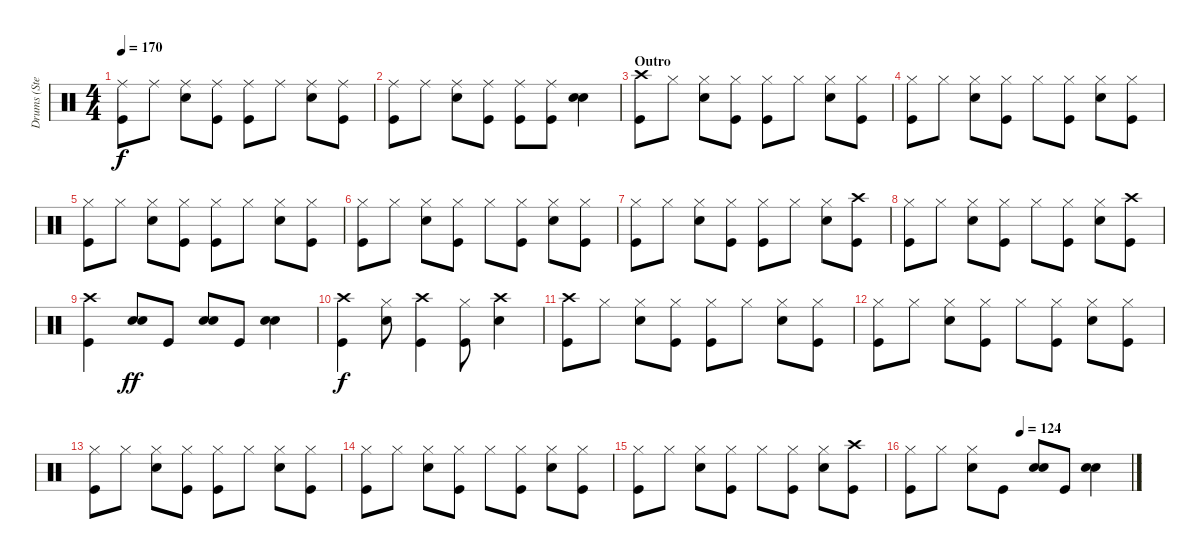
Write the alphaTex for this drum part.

\track ("Drums (Steven)" "Drums (Ste") {instrument percussion}
\staff {score}
\articulation defaults
\ts (4 4)
\tempo 170
\clef neutral
\ks c
("Ride (middle)" "Kick (hit)").8{dy f} "Ride (middle)".8 ("Ride (middle)" "Snare (hit) 2").8 ("Ride (middle)" "Kick (hit)").8 ("Ride (middle)" "Kick (hit)").8 "Ride (middle)".8 ("Ride (middle)" "Snare (hit) 2").8 ("Ride (middle)" "Kick (hit)").8 |
("Ride (middle)" "Kick (hit)").8 "Ride (middle)".8 ("Ride (middle)" "Snare (hit) 2").8 ("Ride (middle)" "Kick (hit)").8 ("Ride (middle)" "Kick (hit)").8 ("Ride (middle)" "Kick (hit)").8 ("Snare (hit) 2" "Snare (hit) 2").4 |
\section ("" "Outro")
("Crash high (hit)" "Kick (hit)").8 "Hi-Hat (closed)".8 ("Hi-Hat (closed)" "Snare (hit) 2").8 ("Hi-Hat (closed)" "Kick (hit)").8 ("Hi-Hat (closed)" "Kick (hit)").8 "Hi-Hat (closed)".8 ("Hi-Hat (closed)" "Snare (hit) 2").8 ("Hi-Hat (closed)" "Kick (hit)").8 |
("Hi-Hat (closed)" "Kick (hit)").8 "Hi-Hat (closed)".8 ("Hi-Hat (closed)" "Snare (hit) 2").8 ("Hi-Hat (closed)" "Kick (hit)").8 "Hi-Hat (closed)".8 ("Hi-Hat (closed)" "Kick (hit)").8 ("Hi-Hat (closed)" "Snare (hit) 2").8 ("Hi-Hat (closed)" "Kick (hit)").8 |
("Hi-Hat (closed)" "Kick (hit)").8 "Hi-Hat (closed)".8 ("Hi-Hat (closed)" "Snare (hit) 2").8 ("Hi-Hat (closed)" "Kick (hit)").8 ("Hi-Hat (closed)" "Kick (hit)").8 "Hi-Hat (closed)".8 ("Hi-Hat (closed)" "Snare (hit) 2").8 ("Hi-Hat (closed)" "Kick (hit)").8 |
("Hi-Hat (closed)" "Kick (hit)").8 "Hi-Hat (closed)".8 ("Hi-Hat (closed)" "Snare (hit) 2").8 ("Hi-Hat (closed)" "Kick (hit)").8 "Hi-Hat (closed)".8 ("Hi-Hat (closed)" "Kick (hit)").8 ("Hi-Hat (closed)" "Snare (hit) 2").8 ("Hi-Hat (closed)" "Kick (hit)").8 |
("Hi-Hat (closed)" "Kick (hit)").8 "Hi-Hat (closed)".8 ("Hi-Hat (closed)" "Snare (hit) 2").8 ("Hi-Hat (closed)" "Kick (hit)").8 ("Hi-Hat (closed)" "Kick (hit)").8 "Hi-Hat (closed)".8 ("Hi-Hat (closed)" "Snare (hit) 2").8 ("Crash high (hit)" "Kick (hit)").8 |
("Hi-Hat (closed)" "Kick (hit)").8 "Hi-Hat (closed)".8 ("Hi-Hat (closed)" "Snare (hit) 2").8 ("Hi-Hat (closed)" "Kick (hit)").8 "Hi-Hat (closed)".8 ("Hi-Hat (closed)" "Kick (hit)").8 ("Hi-Hat (closed)" "Snare (hit) 2").8 ("Crash high (hit)" "Kick (hit)").8 |
("Crash high (hit)" "Kick (hit)").4 ("Snare (hit) 2" "Snare (hit) 2").8{dy ff} "Kick (hit)".8 ("Snare (hit) 2" "Snare (hit) 2").8 "Kick (hit)".8 ("Snare (hit) 2" "Snare (hit) 2").4 |
("Crash high (hit)" "Kick (hit)").4{dy f} ("Hi-Hat (closed)" "Snare (hit) 2").8 ("Crash high (hit)" "Kick (hit)").4 ("Hi-Hat (closed)" "Kick (hit)").8 ("Crash high (hit)" "Snare (hit) 2").4 |
("Crash high (hit)" "Kick (hit)").8 "Hi-Hat (closed)".8 ("Hi-Hat (closed)" "Snare (hit) 2").8 ("Hi-Hat (closed)" "Kick (hit)").8 ("Hi-Hat (closed)" "Kick (hit)").8 "Hi-Hat (closed)".8 ("Hi-Hat (closed)" "Snare (hit) 2").8 ("Hi-Hat (closed)" "Kick (hit)").8 |
("Hi-Hat (closed)" "Kick (hit)").8 "Hi-Hat (closed)".8 ("Hi-Hat (closed)" "Snare (hit) 2").8 ("Hi-Hat (closed)" "Kick (hit)").8 "Hi-Hat (closed)".8 ("Hi-Hat (closed)" "Kick (hit)").8 ("Hi-Hat (closed)" "Snare (hit) 2").8 ("Hi-Hat (closed)" "Kick (hit)").8 |
("Hi-Hat (closed)" "Kick (hit)").8 "Hi-Hat (closed)".8 ("Hi-Hat (closed)" "Snare (hit) 2").8 ("Hi-Hat (closed)" "Kick (hit)").8 ("Hi-Hat (closed)" "Kick (hit)").8 "Hi-Hat (closed)".8 ("Hi-Hat (closed)" "Snare (hit) 2").8 ("Hi-Hat (closed)" "Kick (hit)").8 |
("Hi-Hat (closed)" "Kick (hit)").8 "Hi-Hat (closed)".8 ("Hi-Hat (closed)" "Snare (hit) 2").8 ("Hi-Hat (closed)" "Kick (hit)").8 "Hi-Hat (closed)".8 ("Hi-Hat (closed)" "Kick (hit)").8 ("Hi-Hat (closed)" "Snare (hit) 2").8 ("Hi-Hat (closed)" "Kick (hit)").8 |
("Hi-Hat (closed)" "Kick (hit)").8 "Hi-Hat (closed)".8 ("Hi-Hat (closed)" "Snare (hit) 2").8 ("Hi-Hat (closed)" "Kick (hit)").8 "Hi-Hat (closed)".8 ("Hi-Hat (closed)" "Kick (hit)").8 ("Hi-Hat (closed)" "Snare (hit) 2").8 ("Crash high (hit)" "Kick (hit)").8 |
\tempo (124 0.5)
("Hi-Hat (closed)" "Kick (hit)").8 "Hi-Hat (closed)".8 ("Hi-Hat (closed)" "Snare (hit) 2").8 "Kick (hit)".8 ("Snare (hit) 2" "Snare (hit) 2").8 "Kick (hit)".8 ("Snare (hit) 2" "Snare (hit) 2").4
